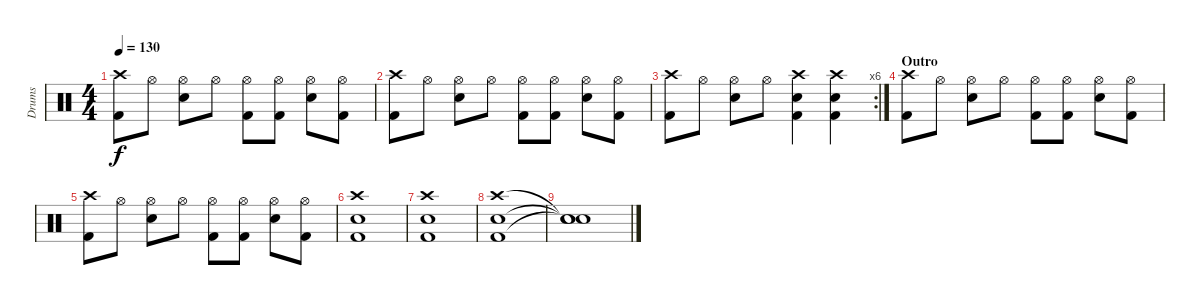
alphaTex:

\track ("Drums" "Drums") {instrument percussion}
\staff {score}
\articulation defaults
\ts (4 4)
\tempo 130
\clef neutral
\ks c
("Crash high (hit)" "Kick (hit) 2").8{dy f} "Hi-Hat (open)".8 ("Hi-Hat (open)" "Electric Snare (hit)").8 "Hi-Hat (open)".8 ("Hi-Hat (open)" "Kick (hit) 2").8 ("Hi-Hat (open)" "Kick (hit) 2").8 ("Hi-Hat (open)" "Electric Snare (hit)").8 ("Hi-Hat (open)" "Kick (hit) 2").8 |
("Crash high (hit)" "Kick (hit) 2").8 "Hi-Hat (open)".8 ("Hi-Hat (open)" "Electric Snare (hit)").8 "Hi-Hat (open)".8 ("Hi-Hat (open)" "Kick (hit) 2").8 ("Hi-Hat (open)" "Kick (hit) 2").8 ("Hi-Hat (open)" "Electric Snare (hit)").8 ("Hi-Hat (open)" "Kick (hit) 2").8 |
\rc 6
("Crash high (hit)" "Kick (hit) 2").8 "Hi-Hat (open)".8 ("Hi-Hat (open)" "Electric Snare (hit)").8 "Hi-Hat (open)".8 ("Crash high (hit)" "Electric Snare (hit)" "Kick (hit) 2").4 ("Crash high (hit)" "Electric Snare (hit)" "Kick (hit) 2").4 |
\section ("" "Outro")
("Crash high (hit)" "Kick (hit) 2").8 "Hi-Hat (open)".8 ("Hi-Hat (open)" "Electric Snare (hit)").8 "Hi-Hat (open)".8 ("Hi-Hat (open)" "Kick (hit) 2").8 ("Hi-Hat (open)" "Kick (hit) 2").8 ("Hi-Hat (open)" "Electric Snare (hit)").8 ("Hi-Hat (open)" "Kick (hit) 2").8 |
("Crash high (hit)" "Kick (hit) 2").8 "Hi-Hat (open)".8 ("Hi-Hat (open)" "Electric Snare (hit)").8 "Hi-Hat (open)".8 ("Hi-Hat (open)" "Kick (hit) 2").8 ("Hi-Hat (open)" "Kick (hit) 2").8 ("Hi-Hat (open)" "Electric Snare (hit)").8 ("Hi-Hat (open)" "Kick (hit) 2").8 |
("Crash high (hit)" "Electric Snare (hit)" "Kick (hit) 2").1 |
("Crash high (hit)" "Electric Snare (hit)" "Kick (hit) 2").1 |
("Crash high (hit)" "Electric Snare (hit)" "Kick (hit) 2").1 |
("Snare (hit)"{t} "Snare (hit)"{t} "Snare (hit)"{t}).1
